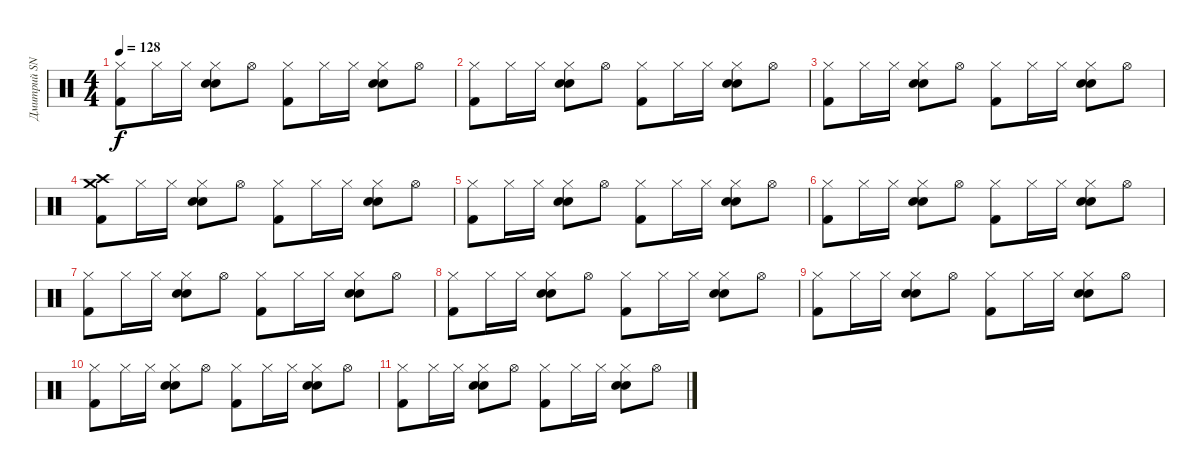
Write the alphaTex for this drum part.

\track ("Дмитрий SNAKE Хакимов" "Дмитрий SN") {instrument percussion}
\staff {score}
\articulation defaults
\ts (4 4)
\tempo 128
\clef neutral
\ks c
("Hi-Hat (closed)" "Kick (hit) 2").8{dy f} "Hi-Hat (closed)".16 "Hi-Hat (closed)".16 ("Hi-Hat (closed)" "Snare (hit) 2" "Hand Clap (hit)").8 "Hi-Hat (open)".8 ("Hi-Hat (closed)" "Kick (hit) 2").8 "Hi-Hat (closed)".16 "Hi-Hat (closed)".16 ("Hi-Hat (closed)" "Snare (hit) 2" "Hand Clap (hit)").8 "Hi-Hat (open)".8 |
("Hi-Hat (closed)" "Kick (hit) 2").8 "Hi-Hat (closed)".16 "Hi-Hat (closed)".16 ("Hi-Hat (closed)" "Snare (hit) 2" "Hand Clap (hit)").8 "Hi-Hat (open)".8 ("Hi-Hat (closed)" "Kick (hit) 2").8 "Hi-Hat (closed)".16 "Hi-Hat (closed)".16 ("Hi-Hat (closed)" "Snare (hit) 2" "Hand Clap (hit)").8 "Hi-Hat (open)".8 |
("Hi-Hat (closed)" "Kick (hit) 2").8 "Hi-Hat (closed)".16 "Hi-Hat (closed)".16 ("Hi-Hat (closed)" "Snare (hit) 2" "Hand Clap (hit)").8 "Hi-Hat (open)".8 ("Hi-Hat (closed)" "Kick (hit) 2").8 "Hi-Hat (closed)".16 "Hi-Hat (closed)".16 ("Hi-Hat (closed)" "Snare (hit) 2" "Hand Clap (hit)").8 "Hi-Hat (open)".8 |
("Crash high (hit)" "Crash medium (hit)" "Kick (hit) 2").8 "Hi-Hat (closed)".16 "Hi-Hat (closed)".16 ("Hi-Hat (closed)" "Snare (hit) 2" "Hand Clap (hit)").8 "Hi-Hat (open)".8 ("Hi-Hat (closed)" "Kick (hit) 2").8 "Hi-Hat (closed)".16 "Hi-Hat (closed)".16 ("Hi-Hat (closed)" "Snare (hit) 2" "Hand Clap (hit)").8 "Hi-Hat (open)".8 |
("Hi-Hat (closed)" "Kick (hit) 2").8 "Hi-Hat (closed)".16 "Hi-Hat (closed)".16 ("Hi-Hat (closed)" "Snare (hit) 2" "Hand Clap (hit)").8 "Hi-Hat (open)".8 ("Hi-Hat (closed)" "Kick (hit) 2").8 "Hi-Hat (closed)".16 "Hi-Hat (closed)".16 ("Hi-Hat (closed)" "Snare (hit) 2" "Hand Clap (hit)").8 "Hi-Hat (open)".8 |
("Hi-Hat (closed)" "Kick (hit) 2").8 "Hi-Hat (closed)".16 "Hi-Hat (closed)".16 ("Hi-Hat (closed)" "Snare (hit) 2" "Hand Clap (hit)").8 "Hi-Hat (open)".8 ("Hi-Hat (closed)" "Kick (hit) 2").8 "Hi-Hat (closed)".16 "Hi-Hat (closed)".16 ("Hi-Hat (closed)" "Snare (hit) 2" "Hand Clap (hit)").8 "Hi-Hat (open)".8 |
("Hi-Hat (closed)" "Kick (hit) 2").8 "Hi-Hat (closed)".16 "Hi-Hat (closed)".16 ("Hi-Hat (closed)" "Snare (hit) 2" "Hand Clap (hit)").8 "Hi-Hat (open)".8 ("Hi-Hat (closed)" "Kick (hit) 2").8 "Hi-Hat (closed)".16 "Hi-Hat (closed)".16 ("Hi-Hat (closed)" "Snare (hit) 2" "Hand Clap (hit)").8 "Hi-Hat (open)".8 |
("Hi-Hat (closed)" "Kick (hit) 2").8 "Hi-Hat (closed)".16 "Hi-Hat (closed)".16 ("Hi-Hat (closed)" "Snare (hit) 2" "Hand Clap (hit)").8 "Hi-Hat (open)".8 ("Hi-Hat (closed)" "Kick (hit) 2").8 "Hi-Hat (closed)".16 "Hi-Hat (closed)".16 ("Hi-Hat (closed)" "Snare (hit) 2" "Hand Clap (hit)").8 "Hi-Hat (open)".8 |
("Hi-Hat (closed)" "Kick (hit) 2").8 "Hi-Hat (closed)".16 "Hi-Hat (closed)".16 ("Hi-Hat (closed)" "Snare (hit) 2" "Hand Clap (hit)").8 "Hi-Hat (open)".8 ("Hi-Hat (closed)" "Kick (hit) 2").8 "Hi-Hat (closed)".16 "Hi-Hat (closed)".16 ("Hi-Hat (closed)" "Snare (hit) 2" "Hand Clap (hit)").8 "Hi-Hat (open)".8 |
("Hi-Hat (closed)" "Kick (hit) 2").8 "Hi-Hat (closed)".16 "Hi-Hat (closed)".16 ("Hi-Hat (closed)" "Snare (hit) 2" "Hand Clap (hit)").8 "Hi-Hat (open)".8 ("Hi-Hat (closed)" "Kick (hit) 2").8 "Hi-Hat (closed)".16 "Hi-Hat (closed)".16 ("Hi-Hat (closed)" "Snare (hit) 2" "Hand Clap (hit)").8 "Hi-Hat (open)".8 |
("Hi-Hat (closed)" "Kick (hit) 2").8 "Hi-Hat (closed)".16 "Hi-Hat (closed)".16 ("Hi-Hat (closed)" "Snare (hit) 2" "Hand Clap (hit)").8 "Hi-Hat (open)".8 ("Hi-Hat (closed)" "Kick (hit) 2").8 "Hi-Hat (closed)".16 "Hi-Hat (closed)".16 ("Hi-Hat (closed)" "Snare (hit) 2" "Hand Clap (hit)").8 "Hi-Hat (open)".8
